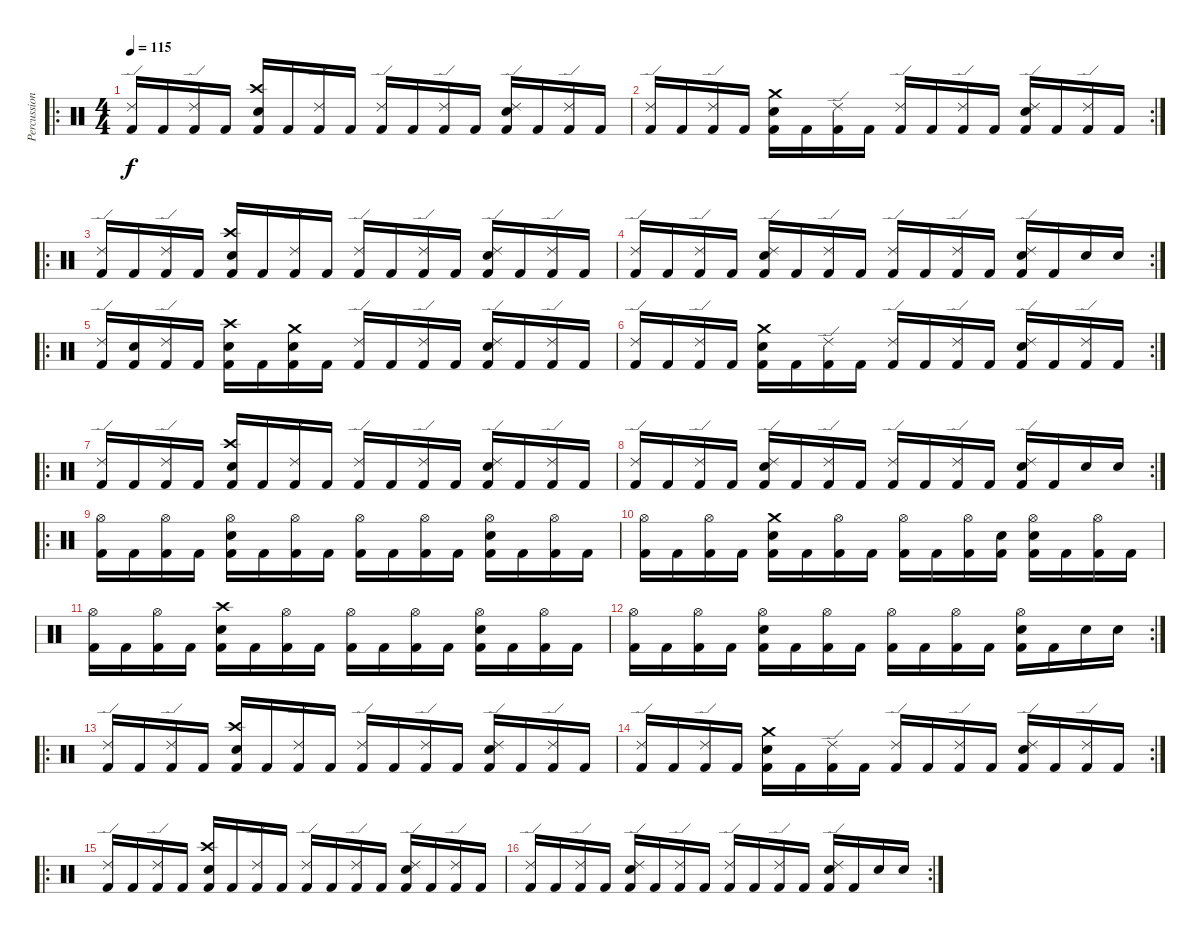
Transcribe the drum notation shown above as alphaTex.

\track ("Percussion" "Percussion") {instrument percussion}
\staff {score}
\articulation defaults
\ro
\ts (4 4)
\tempo 115
\clef neutral
\ks c
("Ride (edge) 2" "Kick (hit) 2").16{dy f} "Kick (hit) 2".16 ("Ride (edge) 2" "Kick (hit) 2").16 "Kick (hit) 2".16 ("Crash high (hit)" "Snare (hit) 2" "Kick (hit) 2").16 "Kick (hit) 2".16 ("Ride (edge) 2" "Kick (hit) 2").16 "Kick (hit) 2".16 ("Ride (edge) 2" "Kick (hit) 2").16 "Kick (hit) 2".16 ("Ride (edge) 2" "Kick (hit) 2").16 "Kick (hit) 2".16 ("Ride (edge) 2" "Snare (hit) 2" "Kick (hit) 2").16 "Kick (hit) 2".16 ("Ride (edge) 2" "Kick (hit) 2").16 "Kick (hit) 2".16 |
\rc 2
("Ride (edge) 2" "Kick (hit) 2").16 "Kick (hit) 2".16 ("Ride (edge) 2" "Kick (hit) 2").16 "Kick (hit) 2".16 ("Crash medium (hit)" "Snare (hit) 2" "Kick (hit) 2").16 "Kick (hit) 2".16 ("Ride (edge) 2" "Kick (hit) 2").16 "Kick (hit) 2".16 ("Ride (edge) 2" "Kick (hit) 2").16 "Kick (hit) 2".16 ("Ride (edge) 2" "Kick (hit) 2").16 "Kick (hit) 2".16 ("Ride (edge) 2" "Snare (hit) 2" "Kick (hit) 2").16 "Kick (hit) 2".16 ("Ride (edge) 2" "Kick (hit) 2").16 "Kick (hit) 2".16 |
\ro
("Ride (edge) 2" "Kick (hit) 2").16 "Kick (hit) 2".16 ("Ride (edge) 2" "Kick (hit) 2").16 "Kick (hit) 2".16 ("Crash high (hit)" "Snare (hit) 2" "Kick (hit) 2").16 "Kick (hit) 2".16 ("Ride (edge) 2" "Kick (hit) 2").16 "Kick (hit) 2".16 ("Ride (edge) 2" "Kick (hit) 2").16 "Kick (hit) 2".16 ("Ride (edge) 2" "Kick (hit) 2").16 "Kick (hit) 2".16 ("Ride (edge) 2" "Snare (hit) 2" "Kick (hit) 2").16 "Kick (hit) 2".16 ("Ride (edge) 2" "Kick (hit) 2").16 "Kick (hit) 2".16 |
\rc 2
("Ride (edge) 2" "Kick (hit) 2").16 "Kick (hit) 2".16 ("Ride (edge) 2" "Kick (hit) 2").16 "Kick (hit) 2".16 ("Ride (edge) 2" "Snare (hit) 2" "Kick (hit) 2").16 "Kick (hit) 2".16 ("Ride (edge) 2" "Kick (hit) 2").16 "Kick (hit) 2".16 ("Ride (edge) 2" "Kick (hit) 2").16 "Kick (hit) 2".16 ("Ride (edge) 2" "Kick (hit) 2").16 "Kick (hit) 2".16 ("Ride (edge) 2" "Snare (hit) 2" "Kick (hit) 2").16 "Kick (hit) 2".16 "Snare (hit) 2".16 "Snare (hit) 2".16 |
\ro
("Ride (edge) 2" "Kick (hit) 2").16 ("Snare (hit) 2" "Kick (hit) 2").16 ("Ride (edge) 2" "Kick (hit) 2").16 "Kick (hit) 2".16 ("Crash high (hit)" "Snare (hit) 2" "Kick (hit) 2").16 "Kick (hit) 2".16 ("Crash medium (hit)" "Snare (hit) 2" "Kick (hit) 2").16 "Kick (hit) 2".16 ("Ride (edge) 2" "Kick (hit) 2").16 "Kick (hit) 2".16 ("Ride (edge) 2" "Kick (hit) 2").16 "Kick (hit) 2".16 ("Ride (edge) 2" "Snare (hit) 2" "Kick (hit) 2").16 "Kick (hit) 2".16 ("Ride (edge) 2" "Kick (hit) 2").16 "Kick (hit) 2".16 |
\rc 2
("Ride (edge) 2" "Kick (hit) 2").16 "Kick (hit) 2".16 ("Ride (edge) 2" "Kick (hit) 2").16 "Kick (hit) 2".16 ("Crash medium (hit)" "Snare (hit) 2" "Kick (hit) 2").16 "Kick (hit) 2".16 ("Ride (edge) 2" "Kick (hit) 2").16 "Kick (hit) 2".16 ("Ride (edge) 2" "Kick (hit) 2").16 "Kick (hit) 2".16 ("Ride (edge) 2" "Kick (hit) 2").16 "Kick (hit) 2".16 ("Ride (edge) 2" "Snare (hit) 2" "Kick (hit) 2").16 "Kick (hit) 2".16 ("Ride (edge) 2" "Kick (hit) 2").16 "Kick (hit) 2".16 |
\ro
("Ride (edge) 2" "Kick (hit) 2").16 "Kick (hit) 2".16 ("Ride (edge) 2" "Kick (hit) 2").16 "Kick (hit) 2".16 ("Crash high (hit)" "Snare (hit) 2" "Kick (hit) 2").16 "Kick (hit) 2".16 ("Ride (edge) 2" "Kick (hit) 2").16 "Kick (hit) 2".16 ("Ride (edge) 2" "Kick (hit) 2").16 "Kick (hit) 2".16 ("Ride (edge) 2" "Kick (hit) 2").16 "Kick (hit) 2".16 ("Ride (edge) 2" "Snare (hit) 2" "Kick (hit) 2").16 "Kick (hit) 2".16 ("Ride (edge) 2" "Kick (hit) 2").16 "Kick (hit) 2".16 |
\rc 2
("Ride (edge) 2" "Kick (hit) 2").16 "Kick (hit) 2".16 ("Ride (edge) 2" "Kick (hit) 2").16 "Kick (hit) 2".16 ("Ride (edge) 2" "Snare (hit) 2" "Kick (hit) 2").16 "Kick (hit) 2".16 ("Ride (edge) 2" "Kick (hit) 2").16 "Kick (hit) 2".16 ("Ride (edge) 2" "Kick (hit) 2").16 "Kick (hit) 2".16 ("Ride (edge) 2" "Kick (hit) 2").16 "Kick (hit) 2".16 ("Ride (edge) 2" "Snare (hit) 2" "Kick (hit) 2").16 "Kick (hit) 2".16 "Snare (hit) 2".16 "Snare (hit) 2".16 |
\ro
("Hi-Hat (open)" "Kick (hit) 2").16 "Kick (hit) 2".16 ("Hi-Hat (open)" "Kick (hit) 2").16 "Kick (hit) 2".16 ("Hi-Hat (open)" "Snare (hit) 2" "Kick (hit) 2").16 "Kick (hit) 2".16 ("Hi-Hat (open)" "Kick (hit) 2").16 "Kick (hit) 2".16 ("Hi-Hat (open)" "Kick (hit) 2").16 "Kick (hit) 2".16 ("Hi-Hat (open)" "Kick (hit) 2").16 "Kick (hit) 2".16 ("Hi-Hat (open)" "Snare (hit) 2" "Kick (hit) 2").16 "Kick (hit) 2".16 ("Hi-Hat (open)" "Kick (hit) 2").16 "Kick (hit) 2".16 |
("Hi-Hat (open)" "Kick (hit) 2").16 "Kick (hit) 2".16 ("Hi-Hat (open)" "Kick (hit) 2").16 "Kick (hit) 2".16 ("Crash medium (hit)" "Snare (hit) 2" "Kick (hit) 2").16 "Kick (hit) 2".16 ("Hi-Hat (open)" "Kick (hit) 2").16 "Kick (hit) 2".16 ("Hi-Hat (open)" "Kick (hit) 2").16 "Kick (hit) 2".16 ("Hi-Hat (open)" "Kick (hit) 2").16 ("Snare (hit)" "Kick (hit) 2").16 ("Hi-Hat (open)" "Snare (hit) 2" "Kick (hit) 2").16 "Kick (hit) 2".16 ("Hi-Hat (open)" "Kick (hit) 2").16 "Kick (hit) 2".16 |
("Hi-Hat (open)" "Kick (hit) 2").16 "Kick (hit) 2".16 ("Hi-Hat (open)" "Kick (hit) 2").16 "Kick (hit) 2".16 ("Crash high (hit)" "Snare (hit) 2" "Kick (hit) 2").16 "Kick (hit) 2".16 ("Hi-Hat (open)" "Kick (hit) 2").16 "Kick (hit) 2".16 ("Hi-Hat (open)" "Kick (hit) 2").16 "Kick (hit) 2".16 ("Hi-Hat (open)" "Kick (hit) 2").16 "Kick (hit) 2".16 ("Hi-Hat (open)" "Snare (hit) 2" "Kick (hit) 2").16 "Kick (hit) 2".16 ("Hi-Hat (open)" "Kick (hit) 2").16 "Kick (hit) 2".16 |
\rc 2
("Hi-Hat (open)" "Kick (hit) 2").16 "Kick (hit) 2".16 ("Hi-Hat (open)" "Kick (hit) 2").16 "Kick (hit) 2".16 ("Hi-Hat (open)" "Snare (hit) 2" "Kick (hit) 2").16 "Kick (hit) 2".16 ("Hi-Hat (open)" "Kick (hit) 2").16 "Kick (hit) 2".16 ("Hi-Hat (open)" "Kick (hit) 2").16 "Kick (hit) 2".16 ("Hi-Hat (open)" "Kick (hit) 2").16 "Kick (hit) 2".16 ("Hi-Hat (open)" "Snare (hit) 2" "Kick (hit) 2").16 "Kick (hit) 2".16 "Snare (hit) 2".16 "Snare (hit) 2".16 |
\ro
("Ride (edge) 2" "Kick (hit) 2").16 "Kick (hit) 2".16 ("Ride (edge) 2" "Kick (hit) 2").16 "Kick (hit) 2".16 ("Crash high (hit)" "Snare (hit) 2" "Kick (hit) 2").16 "Kick (hit) 2".16 ("Ride (edge) 2" "Kick (hit) 2").16 "Kick (hit) 2".16 ("Ride (edge) 2" "Kick (hit) 2").16 "Kick (hit) 2".16 ("Ride (edge) 2" "Kick (hit) 2").16 "Kick (hit) 2".16 ("Ride (edge) 2" "Snare (hit) 2" "Kick (hit) 2").16 "Kick (hit) 2".16 ("Ride (edge) 2" "Kick (hit) 2").16 "Kick (hit) 2".16 |
\rc 2
("Ride (edge) 2" "Kick (hit) 2").16 "Kick (hit) 2".16 ("Ride (edge) 2" "Kick (hit) 2").16 "Kick (hit) 2".16 ("Crash medium (hit)" "Snare (hit) 2" "Kick (hit) 2").16 "Kick (hit) 2".16 ("Ride (edge) 2" "Kick (hit) 2").16 "Kick (hit) 2".16 ("Ride (edge) 2" "Kick (hit) 2").16 "Kick (hit) 2".16 ("Ride (edge) 2" "Kick (hit) 2").16 "Kick (hit) 2".16 ("Ride (edge) 2" "Snare (hit) 2" "Kick (hit) 2").16 "Kick (hit) 2".16 ("Ride (edge) 2" "Kick (hit) 2").16 "Kick (hit) 2".16 |
\ro
("Ride (edge) 2" "Kick (hit) 2").16 "Kick (hit) 2".16 ("Ride (edge) 2" "Kick (hit) 2").16 "Kick (hit) 2".16 ("Crash high (hit)" "Snare (hit) 2" "Kick (hit) 2").16 "Kick (hit) 2".16 ("Ride (edge) 2" "Kick (hit) 2").16 "Kick (hit) 2".16 ("Ride (edge) 2" "Kick (hit) 2").16 "Kick (hit) 2".16 ("Ride (edge) 2" "Kick (hit) 2").16 "Kick (hit) 2".16 ("Ride (edge) 2" "Snare (hit) 2" "Kick (hit) 2").16 "Kick (hit) 2".16 ("Ride (edge) 2" "Kick (hit) 2").16 "Kick (hit) 2".16 |
\rc 2
("Ride (edge) 2" "Kick (hit) 2").16 "Kick (hit) 2".16 ("Ride (edge) 2" "Kick (hit) 2").16 "Kick (hit) 2".16 ("Ride (edge) 2" "Snare (hit) 2" "Kick (hit) 2").16 "Kick (hit) 2".16 ("Ride (edge) 2" "Kick (hit) 2").16 "Kick (hit) 2".16 ("Ride (edge) 2" "Kick (hit) 2").16 "Kick (hit) 2".16 ("Ride (edge) 2" "Kick (hit) 2").16 "Kick (hit) 2".16 ("Ride (edge) 2" "Snare (hit) 2" "Kick (hit) 2").16 "Kick (hit) 2".16 "Snare (hit) 2".16 "Snare (hit) 2".16
